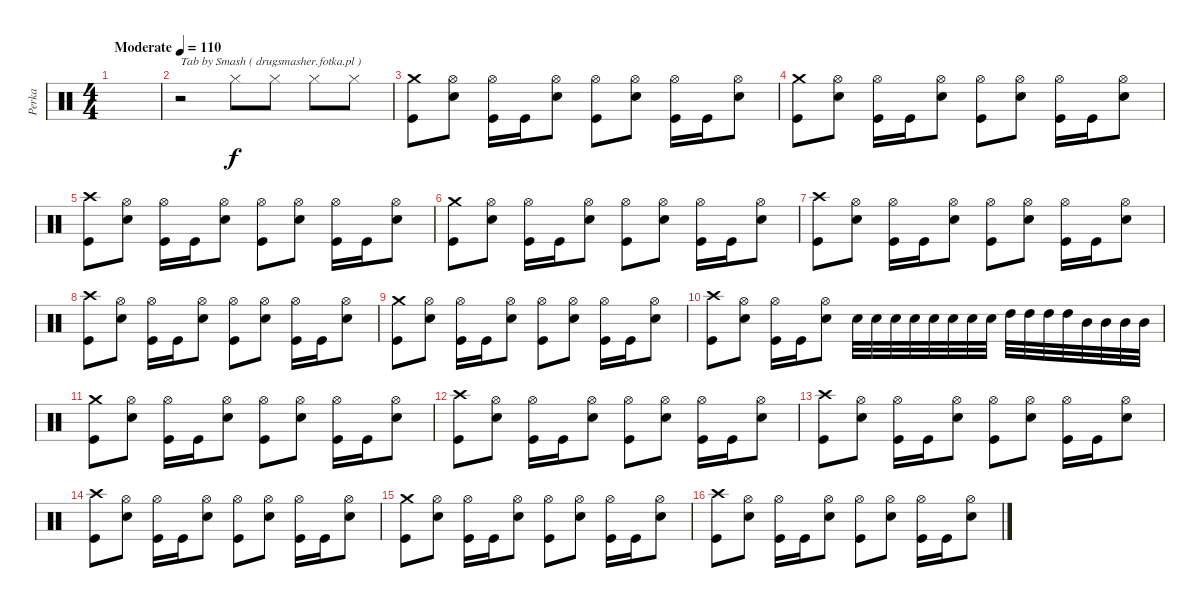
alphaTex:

\track ("Perka" "Perka") {instrument percussion}
\staff {score}
\articulation defaults
\ts (4 4)
\tempo (110 "Moderate")
\clef neutral
\ks c
|
r.2{txt "Tab by Smash ( drugsmasher.fotka.pl )"} "Hi-Hat (closed)".8 "Hi-Hat (closed)".8 "Hi-Hat (closed)".8 "Hi-Hat (closed)".8 |
("Crash medium (hit)" "Kick (hit)").8 ("Hi-Hat (open)" "Snare (hit) 2").8 ("Hi-Hat (open)" "Kick (hit)").16 "Kick (hit)".16 ("Hi-Hat (open)" "Snare (hit) 2").8 ("Hi-Hat (open)" "Kick (hit)").8 ("Hi-Hat (open)" "Snare (hit) 2").8 ("Hi-Hat (open)" "Kick (hit)").16 "Kick (hit)".16 ("Hi-Hat (open)" "Snare (hit) 2").8 |
("Crash medium (hit)" "Kick (hit)").8 ("Hi-Hat (open)" "Snare (hit) 2").8 ("Hi-Hat (open)" "Kick (hit)").16 "Kick (hit)".16 ("Hi-Hat (open)" "Snare (hit) 2").8 ("Hi-Hat (open)" "Kick (hit)").8 ("Hi-Hat (open)" "Snare (hit) 2").8 ("Hi-Hat (open)" "Kick (hit)").16 "Kick (hit)".16 ("Hi-Hat (open)" "Snare (hit) 2").8 |
("Crash high (hit)" "Kick (hit)").8 ("Hi-Hat (open)" "Snare (hit) 2").8 ("Hi-Hat (open)" "Kick (hit)").16 "Kick (hit)".16 ("Hi-Hat (open)" "Snare (hit) 2").8 ("Hi-Hat (open)" "Kick (hit)").8 ("Hi-Hat (open)" "Snare (hit) 2").8 ("Hi-Hat (open)" "Kick (hit)").16 "Kick (hit)".16 ("Hi-Hat (open)" "Snare (hit) 2").8 |
("Crash medium (hit)" "Kick (hit)").8 ("Hi-Hat (open)" "Snare (hit) 2").8 ("Hi-Hat (open)" "Kick (hit)").16 "Kick (hit)".16 ("Hi-Hat (open)" "Snare (hit) 2").8 ("Hi-Hat (open)" "Kick (hit)").8 ("Hi-Hat (open)" "Snare (hit) 2").8 ("Hi-Hat (open)" "Kick (hit)").16 "Kick (hit)".16 ("Hi-Hat (open)" "Snare (hit) 2").8 |
("Crash high (hit)" "Kick (hit)").8 ("Hi-Hat (open)" "Snare (hit) 2").8 ("Hi-Hat (open)" "Kick (hit)").16 "Kick (hit)".16 ("Hi-Hat (open)" "Snare (hit) 2").8 ("Hi-Hat (open)" "Kick (hit)").8 ("Hi-Hat (open)" "Snare (hit) 2").8 ("Hi-Hat (open)" "Kick (hit)").16 "Kick (hit)".16 ("Hi-Hat (open)" "Snare (hit) 2").8 |
("Crash high (hit)" "Kick (hit)").8 ("Hi-Hat (open)" "Snare (hit) 2").8 ("Hi-Hat (open)" "Kick (hit)").16 "Kick (hit)".16 ("Hi-Hat (open)" "Snare (hit) 2").8 ("Hi-Hat (open)" "Kick (hit)").8 ("Hi-Hat (open)" "Snare (hit) 2").8 ("Hi-Hat (open)" "Kick (hit)").16 "Kick (hit)".16 ("Hi-Hat (open)" "Snare (hit) 2").8 |
("Crash medium (hit)" "Kick (hit)").8 ("Hi-Hat (open)" "Snare (hit) 2").8 ("Hi-Hat (open)" "Kick (hit)").16 "Kick (hit)".16 ("Hi-Hat (open)" "Snare (hit) 2").8 ("Hi-Hat (open)" "Kick (hit)").8 ("Hi-Hat (open)" "Snare (hit) 2").8 ("Hi-Hat (open)" "Kick (hit)").16 "Kick (hit)".16 ("Hi-Hat (open)" "Snare (hit) 2").8 |
("Crash high (hit)" "Kick (hit)").8 ("Hi-Hat (open)" "Snare (hit) 2").8 ("Hi-Hat (open)" "Kick (hit)").16 "Kick (hit)".16 ("Hi-Hat (open)" "Snare (hit) 2").8 "Snare (hit) 2".32 "Snare (hit) 2".32 "Snare (hit) 2".32 "Snare (hit) 2".32 "Snare (hit) 2".32 "Snare (hit) 2".32 "Snare (hit) 2".32 "Snare (hit) 2".32 "High Tom (hit)".32 "High Tom (hit)".32 "High Tom (hit)".32 "High Tom (hit)".32 "Mid Tom (hit)".32 "Mid Tom (hit)".32 "Mid Tom (hit)".32 "Mid Tom (hit)".32 |
("Crash medium (hit)" "Kick (hit)").8 ("Hi-Hat (open)" "Snare (hit) 2").8 ("Hi-Hat (open)" "Kick (hit)").16 "Kick (hit)".16 ("Hi-Hat (open)" "Snare (hit) 2").8 ("Hi-Hat (open)" "Kick (hit)").8 ("Hi-Hat (open)" "Snare (hit) 2").8 ("Hi-Hat (open)" "Kick (hit)").16 "Kick (hit)".16 ("Hi-Hat (open)" "Snare (hit) 2").8 |
("Crash high (hit)" "Kick (hit)").8 ("Hi-Hat (open)" "Snare (hit) 2").8 ("Hi-Hat (open)" "Kick (hit)").16 "Kick (hit)".16 ("Hi-Hat (open)" "Snare (hit) 2").8 ("Hi-Hat (open)" "Kick (hit)").8 ("Hi-Hat (open)" "Snare (hit) 2").8 ("Hi-Hat (open)" "Kick (hit)").16 "Kick (hit)".16 ("Hi-Hat (open)" "Snare (hit) 2").8 |
("Crash high (hit)" "Kick (hit)").8 ("Hi-Hat (open)" "Snare (hit) 2").8 ("Hi-Hat (open)" "Kick (hit)").16 "Kick (hit)".16 ("Hi-Hat (open)" "Snare (hit) 2").8 ("Hi-Hat (open)" "Kick (hit)").8 ("Hi-Hat (open)" "Snare (hit) 2").8 ("Hi-Hat (open)" "Kick (hit)").16 "Kick (hit)".16 ("Hi-Hat (open)" "Snare (hit) 2").8 |
("Crash high (hit)" "Kick (hit)").8 ("Hi-Hat (open)" "Snare (hit) 2").8 ("Hi-Hat (open)" "Kick (hit)").16 "Kick (hit)".16 ("Hi-Hat (open)" "Snare (hit) 2").8 ("Hi-Hat (open)" "Kick (hit)").8 ("Hi-Hat (open)" "Snare (hit) 2").8 ("Hi-Hat (open)" "Kick (hit)").16 "Kick (hit)".16 ("Hi-Hat (open)" "Snare (hit) 2").8 |
("Crash medium (hit)" "Kick (hit)").8 ("Hi-Hat (open)" "Snare (hit) 2").8 ("Hi-Hat (open)" "Kick (hit)").16 "Kick (hit)".16 ("Hi-Hat (open)" "Snare (hit) 2").8 ("Hi-Hat (open)" "Kick (hit)").8 ("Hi-Hat (open)" "Snare (hit) 2").8 ("Hi-Hat (open)" "Kick (hit)").16 "Kick (hit)".16 ("Hi-Hat (open)" "Snare (hit) 2").8 |
("Crash high (hit)" "Kick (hit)").8 ("Hi-Hat (open)" "Snare (hit) 2").8 ("Hi-Hat (open)" "Kick (hit)").16 "Kick (hit)".16 ("Hi-Hat (open)" "Snare (hit) 2").8 ("Hi-Hat (open)" "Kick (hit)").8 ("Hi-Hat (open)" "Snare (hit) 2").8 ("Hi-Hat (open)" "Kick (hit)").16 "Kick (hit)".16 ("Hi-Hat (open)" "Snare (hit) 2").8
